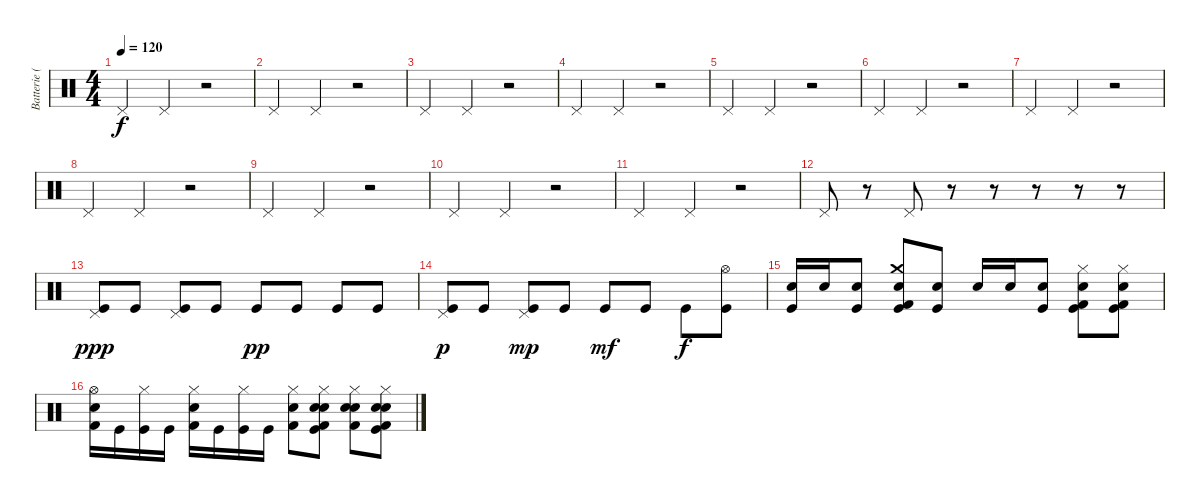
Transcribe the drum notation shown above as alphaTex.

\track ("Batterie (Ced)" "Batterie (") {instrument percussion}
\staff {score}
\articulation defaults
\ts (4 4)
\tempo 120
\clef neutral
\ks c "Pedal Hi-Hat (hit)".4{dy f} "Pedal Hi-Hat (hit)".4
r.2 |
"Pedal Hi-Hat (hit)".4 "Pedal Hi-Hat (hit)".4 r.2 |
"Pedal Hi-Hat (hit)".4 "Pedal Hi-Hat (hit)".4 r.2 |
"Pedal Hi-Hat (hit)".4 "Pedal Hi-Hat (hit)".4 r.2 |
"Pedal Hi-Hat (hit)".4 "Pedal Hi-Hat (hit)".4 r.2 |
"Pedal Hi-Hat (hit)".4 "Pedal Hi-Hat (hit)".4 r.2 |
"Pedal Hi-Hat (hit)".4 "Pedal Hi-Hat (hit)".4 r.2 |
"Pedal Hi-Hat (hit)".4 "Pedal Hi-Hat (hit)".4 r.2 |
"Pedal Hi-Hat (hit)".4 "Pedal Hi-Hat (hit)".4 r.2 |
"Pedal Hi-Hat (hit)".4 "Pedal Hi-Hat (hit)".4 r.2 |
"Pedal Hi-Hat (hit)".4 "Pedal Hi-Hat (hit)".4 r.2 |
"Pedal Hi-Hat (hit)".8 r.8 "Pedal Hi-Hat (hit)".8 r.8 r.8 r.8 r.8 r.8 |
("Pedal Hi-Hat (hit)" "Kick (hit)").8{dy ppp} "Kick (hit)".8 ("Pedal Hi-Hat (hit)" "Kick (hit)").8 "Kick (hit)".8 "Kick (hit)".8{dy pp} "Kick (hit)".8 "Kick (hit)".8 "Kick (hit)".8 |
("Pedal Hi-Hat (hit)" "Kick (hit)").8{dy p} "Kick (hit)".8 ("Pedal Hi-Hat (hit)" "Kick (hit)").8{dy mp} "Kick (hit)".8 "Kick (hit)".8{dy mf} "Kick (hit)".8 "Kick (hit)".8{dy f} ("Hi-Hat (open)" "Kick (hit)").8 |
("Snare (hit) 2" "Kick (hit)").16 "Snare (hit) 2".16 ("Snare (hit) 2" "Kick (hit)").8 ("Crash medium (hit)" "Electric Snare (hit)" "Kick (hit) 2" "Kick (hit)").8 ("Snare (hit) 2" "Kick (hit)").8 "Snare (hit) 2".16 "Snare (hit) 2".16 ("Snare (hit) 2" "Kick (hit)").8 ("Hi-Hat (closed)" "Electric Snare (hit)" "Kick (hit) 2" "Kick (hit)").8 ("Hi-Hat (closed)" "Electric Snare (hit)" "Kick (hit) 2" "Kick (hit)").8 |
("Hi-Hat (open)" "Electric Snare (hit)" "Kick (hit) 2").16 "Kick (hit)".16 ("Hi-Hat (closed)" "Kick (hit)").16 "Kick (hit)".16 ("Hi-Hat (closed)" "Electric Snare (hit)" "Kick (hit) 2").16 "Kick (hit)".16 ("Hi-Hat (closed)" "Kick (hit)").16 "Kick (hit)".16 ("Hi-Hat (closed)" "Electric Snare (hit)" "Kick (hit) 2").8 ("Hi-Hat (closed)" "Snare (hit) 2" "Electric Snare (hit)" "Kick (hit) 2" "Kick (hit)").8 ("Hi-Hat (closed)" "Snare (hit) 2" "Electric Snare (hit)" "Kick (hit) 2").8 ("Hi-Hat (closed)" "Snare (hit) 2" "Electric Snare (hit)" "Kick (hit) 2" "Kick (hit)").8
